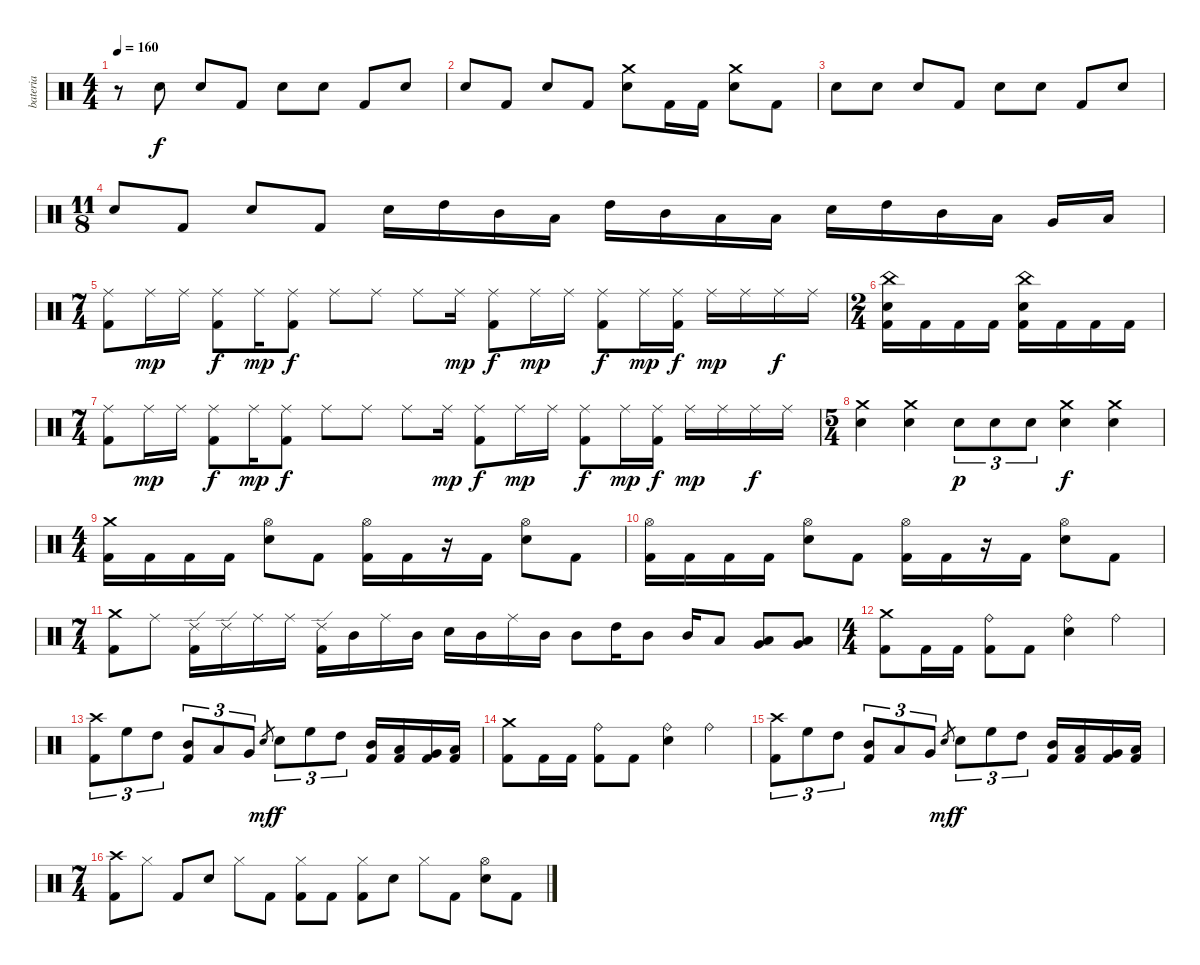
\track ("bateria" "bateria") {instrument percussion}
\staff {score}
\articulation defaults
\ts (4 4)
\tempo 160
\clef neutral
\ks c
r.8{dy f} "Electric Snare (hit)".8{volume 3} "Electric Snare (hit)".8{volume 15} "Kick (hit) 2".8 "Electric Snare (hit)".8 "Electric Snare (hit)".8 "Kick (hit) 2".8 "Electric Snare (hit)".8 |
"Electric Snare (hit)".8 "Kick (hit) 2".8 "Electric Snare (hit)".8 "Kick (hit) 2".8 ("Crash medium (hit)" "Electric Snare (hit)").8 "Kick (hit) 2".16 "Kick (hit) 2".16 ("Crash medium (hit)" "Electric Snare (hit)").8 "Kick (hit) 2".8 |
"Electric Snare (hit)".8 "Electric Snare (hit)".8 "Electric Snare (hit)".8 "Kick (hit) 2".8 "Electric Snare (hit)".8 "Electric Snare (hit)".8 "Kick (hit) 2".8 "Electric Snare (hit)".8 |
\ts (11 8)
"Electric Snare (hit)".8 "Kick (hit) 2".8 "Electric Snare (hit)".8 "Kick (hit) 2".8 "Electric Snare (hit)".16 "High Tom (hit)".16 "Mid Tom (hit)".16 "Low Tom (hit)".16 "High Tom (hit)".16 "Mid Tom (hit)".16 "Low Tom (hit)".16 "Low Tom (hit)".16 "Electric Snare (hit)".16 "High Tom (hit)".16 "Mid Tom (hit)".16 "Low Tom (hit)".16 "Very Low Tom (hit)".16 "Low Floor Tom (hit)".16 |
\ts (7 4)
("Ride (middle)" "Kick (hit) 2").8 "Ride (middle)".16{dy mp} "Ride (middle)".16 ("Ride (middle)" "Kick (hit) 2").8{dy f} "Ride (middle)".16{dy mp} ("Ride (middle)" "Kick (hit) 2").8{dy f} "Ride (middle)".8 "Ride (middle)".8 "Ride (middle)".8 "Ride (middle)".16{dy mp} ("Ride (middle)" "Kick (hit) 2").8{dy f} "Ride (middle)".16{dy mp} "Ride (middle)".16 ("Ride (middle)" "Kick (hit) 2").8{dy f} "Ride (middle)".16{dy mp} ("Ride (middle)" "Kick (hit) 2").16{dy f} "Ride (middle)".16{dy mp} "Ride (middle)".16 "Ride (middle)".16{dy f} "Ride (middle)".16 |
\ts (2 4)
("China (hit)" "Electric Snare (hit)" "Kick (hit) 2").16 "Kick (hit) 2".16 "Kick (hit) 2".16 "Kick (hit) 2".16 ("China (hit)" "Electric Snare (hit)" "Kick (hit) 2").16 "Kick (hit) 2".16 "Kick (hit) 2".16 "Kick (hit) 2".16 |
\ts (7 4)
("Ride (middle)" "Kick (hit) 2").8 "Ride (middle)".16{dy mp} "Ride (middle)".16 ("Ride (middle)" "Kick (hit) 2").8{dy f} "Ride (middle)".16{dy mp} ("Ride (middle)" "Kick (hit) 2").8{dy f} "Ride (middle)".8 "Ride (middle)".8 "Ride (middle)".8 "Ride (middle)".16{dy mp} ("Ride (middle)" "Kick (hit) 2").8{dy f} "Ride (middle)".16{dy mp} "Ride (middle)".16 ("Ride (middle)" "Kick (hit) 2").8{dy f} "Ride (middle)".16{dy mp} ("Ride (middle)" "Kick (hit) 2").16{dy f} "Ride (middle)".16{dy mp} "Ride (middle)".16 "Ride (middle)".16{dy f} "Ride (middle)".16 |
\ts (5 4)
("Crash medium (hit)" "Electric Snare (hit)").4 ("Crash medium (hit)" "Electric Snare (hit)").4 "Electric Snare (hit)".8{tu (3 2) dy p} "Electric Snare (hit)".8{tu (3 2)} "Electric Snare (hit)".8{tu (3 2)} ("Crash medium (hit)" "Electric Snare (hit)").4{dy f} ("Crash medium (hit)" "Electric Snare (hit)").4 |
\ts (4 4)
("Crash medium (hit)" "Kick (hit) 2").16 "Kick (hit) 2".16 "Kick (hit) 2".16 "Kick (hit) 2".16 ("Hi-Hat (open)" "Electric Snare (hit)").8 "Kick (hit) 2".8 ("Hi-Hat (open)" "Kick (hit) 2").16 "Kick (hit) 2".16 r.16 "Kick (hit) 2".16 ("Hi-Hat (open)" "Electric Snare (hit)").8 "Kick (hit) 2".8 |
("Hi-Hat (open)" "Kick (hit) 2").16 "Kick (hit) 2".16 "Kick (hit) 2".16 "Kick (hit) 2".16 ("Hi-Hat (open)" "Electric Snare (hit)").8 "Kick (hit) 2".8 ("Hi-Hat (open)" "Kick (hit) 2").16 "Kick (hit) 2".16 r.16 "Kick (hit) 2".16 ("Hi-Hat (open)" "Electric Snare (hit)").8 "Kick (hit) 2".8 |
\ts (7 4)
("Crash medium (hit)" "Kick (hit) 2").8 "Ride (middle)".8 ("Ride (edge) 2" "Kick (hit) 2").16 "Ride (edge) 2".16 "Ride (middle)".16 "Ride (middle)".16 ("Ride (edge) 2" "Kick (hit) 2").16 "Mid Tom (hit)".16 "Ride (middle)".16 "Mid Tom (hit)".16 "Electric Snare (hit)".16 "Mid Tom (hit)".16 "Ride (middle)".16 "Mid Tom (hit)".16 "Mid Tom (hit)".8 "High Tom (hit)".16 "Mid Tom (hit)".8 "Mid Tom (hit)".16 "Low Tom (hit)".8 ("Low Tom (hit)" "Very Low Tom (hit)").8 ("Very Low Tom (hit)" "Low Floor Tom (hit)").8 |
\ts (4 4)
("Crash medium (hit)" "Kick (hit) 2").8 "Kick (hit) 2".16 "Kick (hit) 2".16 ("Ride (bell)" "Kick (hit) 2").8 "Kick (hit) 2".8 ("Ride (bell)" "Electric Snare (hit)").4 "Ride (bell)".4 |
("Crash high (hit)" "Kick (hit) 2").8{tu (3 2)} "High Floor Tom (hit)".8{tu (3 2)} "High Tom (hit)".8{tu (3 2)} ("Mid Tom (hit)" "Kick (hit) 2").8{tu (3 2)} "Low Tom (hit)".8{tu (3 2)} "Very Low Tom (hit)".8{tu (3 2)} "Electric Snare (hit)".8{gr dy mf} "Electric Snare (hit)".8{tu (3 2) dy f} "High Floor Tom (hit)".8{tu (3 2)} "High Tom (hit)".8{tu (3 2)} ("Mid Tom (hit)" "Kick (hit) 2").16 ("Low Tom (hit)" "Kick (hit) 2").16 ("Very Low Tom (hit)" "Kick (hit) 2").16 ("Low Floor Tom (hit)" "Kick (hit) 2").16 |
("Crash medium (hit)" "Kick (hit) 2").8 "Kick (hit) 2".16 "Kick (hit) 2".16 ("Ride (bell)" "Kick (hit) 2").8 "Kick (hit) 2".8 ("Ride (bell)" "Electric Snare (hit)").4 "Ride (bell)".4 |
("Crash high (hit)" "Kick (hit) 2").8{tu (3 2)} "High Floor Tom (hit)".8{tu (3 2)} "High Tom (hit)".8{tu (3 2)} ("Mid Tom (hit)" "Kick (hit) 2").8{tu (3 2)} "Low Tom (hit)".8{tu (3 2)} "Very Low Tom (hit)".8{tu (3 2)} "Electric Snare (hit)".8{gr dy mf} "Electric Snare (hit)".8{tu (3 2) dy f} "High Floor Tom (hit)".8{tu (3 2)} "High Tom (hit)".8{tu (3 2)} ("Mid Tom (hit)" "Kick (hit) 2").16 ("Low Tom (hit)" "Kick (hit) 2").16 ("Very Low Tom (hit)" "Kick (hit) 2").16 ("Low Floor Tom (hit)" "Kick (hit) 2").16 |
\ts (7 4)
("Crash high (hit)" "Kick (hit) 2").8 "Hi-Hat (closed)".8 "Kick (hit) 2".8 "Electric Snare (hit)".8 "Hi-Hat (closed)".8 "Kick (hit) 2".8 ("Hi-Hat (closed)" "Kick (hit) 2").8 "Kick (hit) 2".8 ("Hi-Hat (closed)" "Kick (hit) 2").8 "Electric Snare (hit)".8 "Hi-Hat (closed)".8 "Kick (hit) 2".8 ("Hi-Hat (open)" "Electric Snare (hit)").8 "Kick (hit) 2".8
